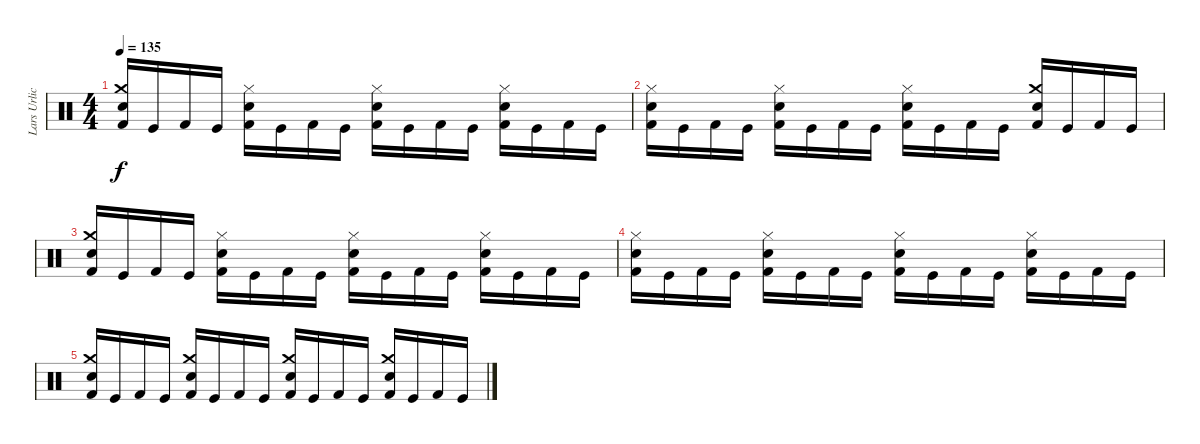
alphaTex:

\track ("Lars Urlich (drums)" "Lars Urlic") {instrument percussion}
\staff {score}
\articulation defaults
\ts (4 4)
\tempo 135
\clef neutral
\ks c
("Snare (hit) 2" "Crash medium (hit)" "Kick (hit) 2").16{dy f} "Kick (hit)".16 "Kick (hit) 2".16 "Kick (hit)".16 ("Hi-Hat (closed)" "Snare (hit) 2" "Kick (hit) 2").16 "Kick (hit)".16 "Kick (hit) 2".16 "Kick (hit)".16 ("Hi-Hat (closed)" "Snare (hit) 2" "Kick (hit) 2").16 "Kick (hit)".16 "Kick (hit) 2".16 "Kick (hit)".16 ("Hi-Hat (closed)" "Snare (hit) 2" "Kick (hit) 2").16 "Kick (hit)".16 "Kick (hit) 2".16 "Kick (hit)".16 |
("Snare (hit) 2" "Hi-Hat (closed)" "Kick (hit) 2").16 "Kick (hit)".16 "Kick (hit) 2".16 "Kick (hit)".16 ("Snare (hit) 2" "Hi-Hat (closed)" "Kick (hit) 2").16 "Kick (hit)".16 "Kick (hit) 2".16 "Kick (hit)".16 ("Snare (hit) 2" "Hi-Hat (closed)" "Kick (hit) 2").16 "Kick (hit)".16 "Kick (hit) 2".16 "Kick (hit)".16 ("Crash medium (hit)" "Snare (hit) 2" "Kick (hit) 2").16 "Kick (hit)".16 "Kick (hit) 2".16 "Kick (hit)".16 |
("Snare (hit) 2" "Crash medium (hit)" "Kick (hit) 2").16 "Kick (hit)".16 "Kick (hit) 2".16 "Kick (hit)".16 ("Hi-Hat (closed)" "Snare (hit) 2" "Kick (hit) 2").16 "Kick (hit)".16 "Kick (hit) 2".16 "Kick (hit)".16 ("Hi-Hat (closed)" "Snare (hit) 2" "Kick (hit) 2").16 "Kick (hit)".16 "Kick (hit) 2".16 "Kick (hit)".16 ("Hi-Hat (closed)" "Snare (hit) 2" "Kick (hit) 2").16 "Kick (hit)".16 "Kick (hit) 2".16 "Kick (hit)".16 |
("Snare (hit) 2" "Hi-Hat (closed)" "Kick (hit) 2").16 "Kick (hit)".16 "Kick (hit) 2".16 "Kick (hit)".16 ("Snare (hit) 2" "Hi-Hat (closed)" "Kick (hit) 2").16 "Kick (hit)".16 "Kick (hit) 2".16 "Kick (hit)".16 ("Snare (hit) 2" "Hi-Hat (closed)" "Kick (hit) 2").16 "Kick (hit)".16 "Kick (hit) 2".16 "Kick (hit)".16 ("Snare (hit) 2" "Hi-Hat (closed)" "Kick (hit) 2").16 "Kick (hit)".16 "Kick (hit) 2".16 "Kick (hit)".16 |
("Crash medium (hit)" "Snare (hit) 2" "Kick (hit) 2").16 "Kick (hit)".16 "Kick (hit) 2".16 "Kick (hit)".16 ("Crash medium (hit)" "Snare (hit) 2" "Kick (hit) 2").16 "Kick (hit)".16 "Kick (hit) 2".16 "Kick (hit)".16 ("Crash medium (hit)" "Snare (hit) 2" "Kick (hit) 2").16 "Kick (hit)".16 "Kick (hit) 2".16 "Kick (hit)".16 ("Crash medium (hit)" "Snare (hit) 2" "Kick (hit) 2").16 "Kick (hit)".16 "Kick (hit) 2".16 "Kick (hit)".16
